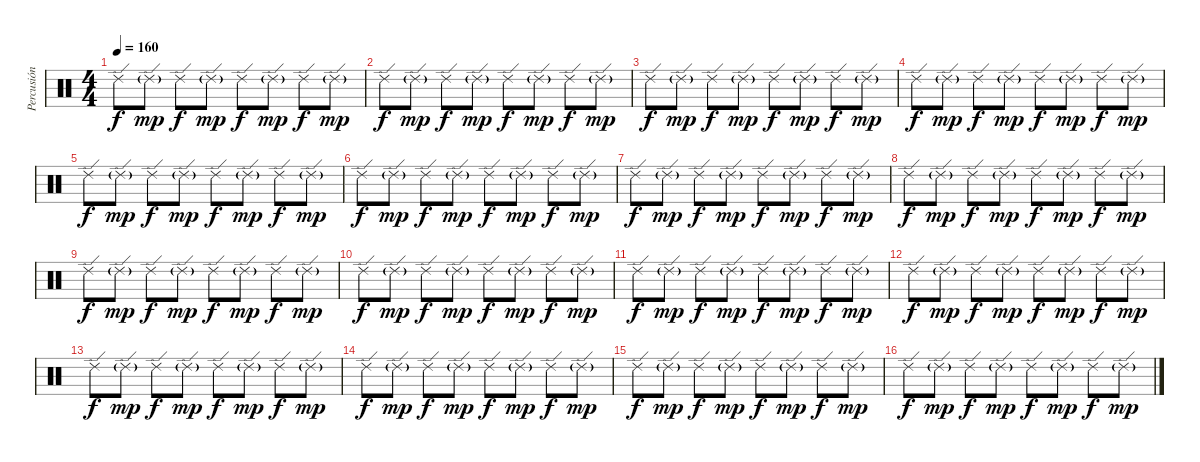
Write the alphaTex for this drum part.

\track ("Percusión" "Percusión") {instrument percussion}
\staff {score}
\articulation defaults
\ts (4 4)
\tempo 160
\clef neutral
\ks c "Ride (edge) 2".8{dy f} "Ride (edge) 2"{g}.8{dy mp} "Ride (edge) 2".8{dy f} "Ride (edge) 2"{g}.8{dy mp} "Ride (edge) 2".8{dy f} "Ride (edge) 2"{g}.8{dy mp} "Ride (edge) 2".8{dy f} "Ride (edge) 2"{g}.8{dy mp}
|
"Ride (edge) 2".8{dy f} "Ride (edge) 2"{g}.8{dy mp} "Ride (edge) 2".8{dy f} "Ride (edge) 2"{g}.8{dy mp} "Ride (edge) 2".8{dy f} "Ride (edge) 2"{g}.8{dy mp} "Ride (edge) 2".8{dy f} "Ride (edge) 2"{g}.8{dy mp} |
"Ride (edge) 2".8{dy f} "Ride (edge) 2"{g}.8{dy mp} "Ride (edge) 2".8{dy f} "Ride (edge) 2"{g}.8{dy mp} "Ride (edge) 2".8{dy f} "Ride (edge) 2"{g}.8{dy mp} "Ride (edge) 2".8{dy f} "Ride (edge) 2"{g}.8{dy mp} |
"Ride (edge) 2".8{dy f} "Ride (edge) 2"{g}.8{dy mp} "Ride (edge) 2".8{dy f} "Ride (edge) 2"{g}.8{dy mp} "Ride (edge) 2".8{dy f} "Ride (edge) 2"{g}.8{dy mp} "Ride (edge) 2".8{dy f} "Ride (edge) 2"{g}.8{dy mp} |
"Ride (edge) 2".8{dy f} "Ride (edge) 2"{g}.8{dy mp} "Ride (edge) 2".8{dy f} "Ride (edge) 2"{g}.8{dy mp} "Ride (edge) 2".8{dy f} "Ride (edge) 2"{g}.8{dy mp} "Ride (edge) 2".8{dy f} "Ride (edge) 2"{g}.8{dy mp} |
"Ride (edge) 2".8{dy f} "Ride (edge) 2"{g}.8{dy mp} "Ride (edge) 2".8{dy f} "Ride (edge) 2"{g}.8{dy mp} "Ride (edge) 2".8{dy f} "Ride (edge) 2"{g}.8{dy mp} "Ride (edge) 2".8{dy f} "Ride (edge) 2"{g}.8{dy mp} |
"Ride (edge) 2".8{dy f} "Ride (edge) 2"{g}.8{dy mp} "Ride (edge) 2".8{dy f} "Ride (edge) 2"{g}.8{dy mp} "Ride (edge) 2".8{dy f} "Ride (edge) 2"{g}.8{dy mp} "Ride (edge) 2".8{dy f} "Ride (edge) 2"{g}.8{dy mp} |
"Ride (edge) 2".8{dy f} "Ride (edge) 2"{g}.8{dy mp} "Ride (edge) 2".8{dy f} "Ride (edge) 2"{g}.8{dy mp} "Ride (edge) 2".8{dy f} "Ride (edge) 2"{g}.8{dy mp} "Ride (edge) 2".8{dy f} "Ride (edge) 2"{g}.8{dy mp} |
"Ride (edge) 2".8{dy f} "Ride (edge) 2"{g}.8{dy mp} "Ride (edge) 2".8{dy f} "Ride (edge) 2"{g}.8{dy mp} "Ride (edge) 2".8{dy f} "Ride (edge) 2"{g}.8{dy mp} "Ride (edge) 2".8{dy f} "Ride (edge) 2"{g}.8{dy mp} |
"Ride (edge) 2".8{dy f} "Ride (edge) 2"{g}.8{dy mp} "Ride (edge) 2".8{dy f} "Ride (edge) 2"{g}.8{dy mp} "Ride (edge) 2".8{dy f} "Ride (edge) 2"{g}.8{dy mp} "Ride (edge) 2".8{dy f} "Ride (edge) 2"{g}.8{dy mp} |
"Ride (edge) 2".8{dy f} "Ride (edge) 2"{g}.8{dy mp} "Ride (edge) 2".8{dy f} "Ride (edge) 2"{g}.8{dy mp} "Ride (edge) 2".8{dy f} "Ride (edge) 2"{g}.8{dy mp} "Ride (edge) 2".8{dy f} "Ride (edge) 2"{g}.8{dy mp} |
"Ride (edge) 2".8{dy f} "Ride (edge) 2"{g}.8{dy mp} "Ride (edge) 2".8{dy f} "Ride (edge) 2"{g}.8{dy mp} "Ride (edge) 2".8{dy f} "Ride (edge) 2"{g}.8{dy mp} "Ride (edge) 2".8{dy f} "Ride (edge) 2"{g}.8{dy mp} |
"Ride (edge) 2".8{dy f} "Ride (edge) 2"{g}.8{dy mp} "Ride (edge) 2".8{dy f} "Ride (edge) 2"{g}.8{dy mp} "Ride (edge) 2".8{dy f} "Ride (edge) 2"{g}.8{dy mp} "Ride (edge) 2".8{dy f} "Ride (edge) 2"{g}.8{dy mp} |
"Ride (edge) 2".8{dy f} "Ride (edge) 2"{g}.8{dy mp} "Ride (edge) 2".8{dy f} "Ride (edge) 2"{g}.8{dy mp} "Ride (edge) 2".8{dy f} "Ride (edge) 2"{g}.8{dy mp} "Ride (edge) 2".8{dy f} "Ride (edge) 2"{g}.8{dy mp} |
"Ride (edge) 2".8{dy f} "Ride (edge) 2"{g}.8{dy mp} "Ride (edge) 2".8{dy f} "Ride (edge) 2"{g}.8{dy mp} "Ride (edge) 2".8{dy f} "Ride (edge) 2"{g}.8{dy mp} "Ride (edge) 2".8{dy f} "Ride (edge) 2"{g}.8{dy mp} |
"Ride (edge) 2".8{dy f} "Ride (edge) 2"{g}.8{dy mp} "Ride (edge) 2".8{dy f} "Ride (edge) 2"{g}.8{dy mp} "Ride (edge) 2".8{dy f} "Ride (edge) 2"{g}.8{dy mp} "Ride (edge) 2".8{dy f} "Ride (edge) 2"{g}.8{dy mp}
